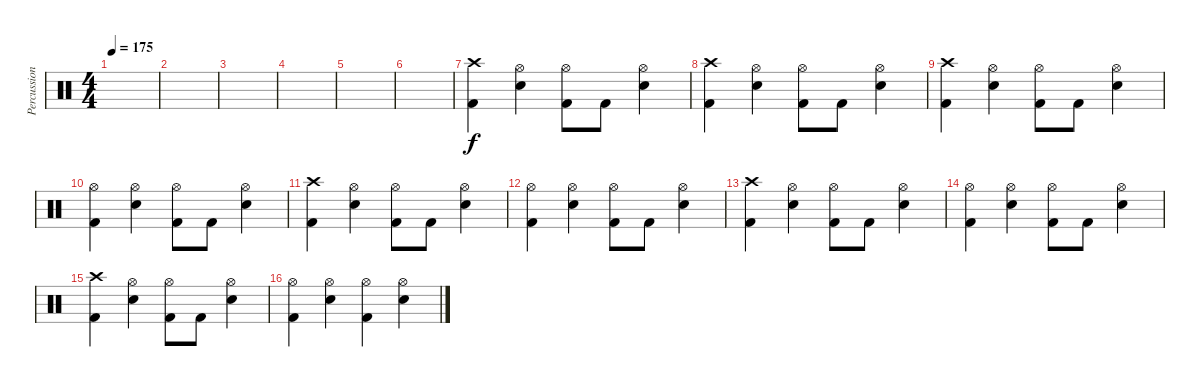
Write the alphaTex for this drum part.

\track ("Percussion" "Percussion") {instrument percussion}
\staff {score}
\articulation defaults
\ts (4 4)
\tempo 175
\clef neutral
\ks c
|
|
|
|
|
|
("Crash high (hit)" "Kick (hit) 2").4 ("Hi-Hat (open)" "Snare (hit) 2").4 ("Hi-Hat (open)" "Kick (hit) 2").8 "Kick (hit) 2".8 ("Hi-Hat (open)" "Snare (hit) 2").4 |
("Crash high (hit)" "Kick (hit) 2").4 ("Hi-Hat (open)" "Snare (hit) 2").4 ("Hi-Hat (open)" "Kick (hit) 2").8 "Kick (hit) 2".8 ("Hi-Hat (open)" "Snare (hit) 2").4 |
("Crash high (hit)" "Kick (hit) 2").4 ("Hi-Hat (open)" "Snare (hit) 2").4 ("Hi-Hat (open)" "Kick (hit) 2").8 "Kick (hit) 2".8 ("Hi-Hat (open)" "Snare (hit) 2").4 |
("Hi-Hat (open)" "Kick (hit) 2").4 ("Hi-Hat (open)" "Snare (hit) 2").4 ("Hi-Hat (open)" "Kick (hit) 2").8 "Kick (hit) 2".8 ("Hi-Hat (open)" "Snare (hit) 2").4 |
("Crash high (hit)" "Kick (hit) 2").4 ("Hi-Hat (open)" "Snare (hit) 2").4 ("Hi-Hat (open)" "Kick (hit) 2").8 "Kick (hit) 2".8 ("Hi-Hat (open)" "Snare (hit) 2").4 |
("Hi-Hat (open)" "Kick (hit) 2").4 ("Hi-Hat (open)" "Snare (hit) 2").4 ("Hi-Hat (open)" "Kick (hit) 2").8 "Kick (hit) 2".8 ("Hi-Hat (open)" "Snare (hit) 2").4 |
("Crash high (hit)" "Kick (hit) 2").4 ("Hi-Hat (open)" "Snare (hit) 2").4 ("Hi-Hat (open)" "Kick (hit) 2").8 "Kick (hit) 2".8 ("Hi-Hat (open)" "Snare (hit) 2").4 |
("Hi-Hat (open)" "Kick (hit) 2").4 ("Hi-Hat (open)" "Snare (hit) 2").4 ("Hi-Hat (open)" "Kick (hit) 2").8 "Kick (hit) 2".8 ("Hi-Hat (open)" "Snare (hit) 2").4 |
("Crash high (hit)" "Kick (hit) 2").4 ("Hi-Hat (open)" "Snare (hit) 2").4 ("Hi-Hat (open)" "Kick (hit) 2").8 "Kick (hit) 2".8 ("Hi-Hat (open)" "Snare (hit) 2").4 |
("Hi-Hat (open)" "Kick (hit) 2").4 ("Hi-Hat (open)" "Snare (hit) 2").4 ("Hi-Hat (open)" "Kick (hit) 2").4 ("Hi-Hat (open)" "Snare (hit) 2").4
